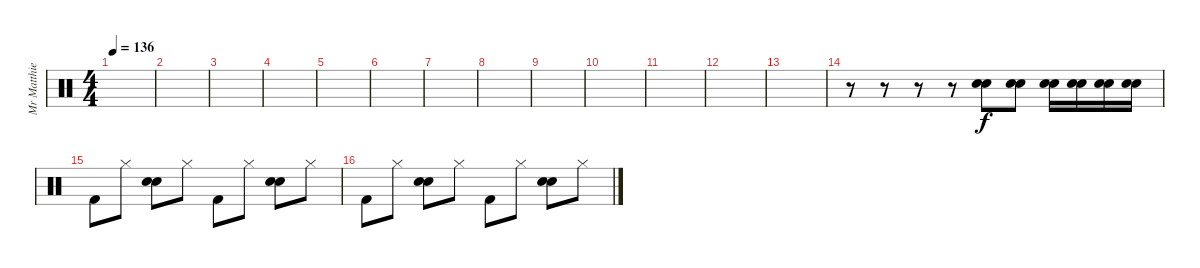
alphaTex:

\track ("Mr Matthieu (Batterie)" "Mr Matthie") {instrument percussion}
\staff {score}
\articulation defaults
\ts (4 4)
\tempo 136
\clef neutral
\ks c
|
|
|
|
|
|
|
|
|
|
|
|
|
r.8 r.8 r.8 r.8 ("Electric Snare (hit)" "Snare (hit) 2").8 ("Electric Snare (hit)" "Snare (hit) 2").8 ("Electric Snare (hit)" "Snare (hit) 2").16 ("Electric Snare (hit)" "Snare (hit) 2").16 ("Electric Snare (hit)" "Snare (hit) 2").16 ("Electric Snare (hit)" "Snare (hit) 2").16 |
"Kick (hit) 2".8 "Hi-Hat (closed)".8 ("Electric Snare (hit)" "Snare (hit) 2").8 "Hi-Hat (closed)".8 "Kick (hit) 2".8 "Hi-Hat (closed)".8 ("Electric Snare (hit)" "Snare (hit) 2").8 "Hi-Hat (closed)".8 |
"Kick (hit) 2".8 "Hi-Hat (closed)".8 ("Electric Snare (hit)" "Snare (hit) 2").8 "Hi-Hat (closed)".8 "Kick (hit) 2".8 "Hi-Hat (closed)".8 ("Electric Snare (hit)" "Snare (hit) 2").8 "Hi-Hat (closed)".8
